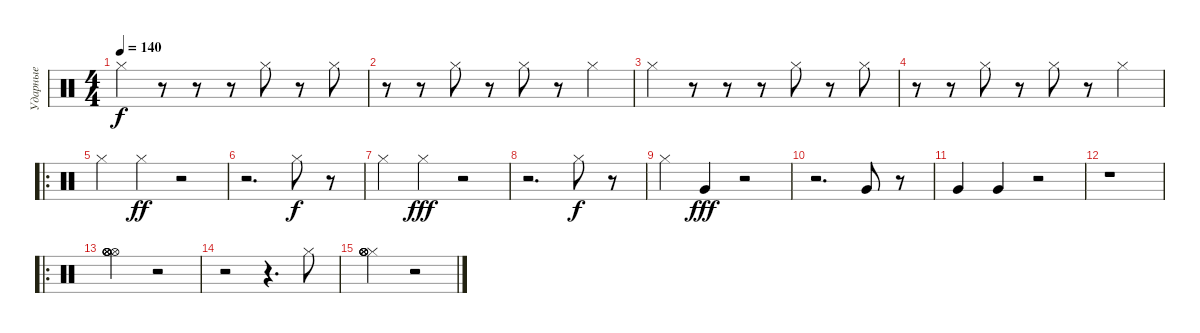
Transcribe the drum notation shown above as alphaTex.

\track ("Ударные" "Ударные") {instrument percussion}
\staff {score}
\articulation defaults
\ts (4 4)
\tempo 140
\clef neutral
\ks c "Hi-Hat (closed)".4{dy f}
r.8 r.8 r.8 "Hi-Hat (closed)".8 r.8 "Hi-Hat (closed)".8 |
r.8 r.8 "Hi-Hat (closed)".8 r.8 "Hi-Hat (closed)".8 r.8 "Hi-Hat (closed)".4 |
"Hi-Hat (closed)".4 r.8 r.8 r.8 "Hi-Hat (closed)".8 r.8 "Hi-Hat (closed)".8 |
r.8 r.8 "Hi-Hat (closed)".8 r.8 "Hi-Hat (closed)".8 r.8 "Hi-Hat (closed)".4 |
\ro "Hi-Hat (closed)".4 "Hi-Hat (closed)".4{dy ff}
r.2 |
r.2{d} "Hi-Hat (closed)".8{dy f} r.8 |
"Hi-Hat (closed)".4 "Hi-Hat (closed)".4{dy fff} r.2 |
r.2{d} "Hi-Hat (closed)".8{dy f} r.8 |
"Hi-Hat (closed)".4 "Very Low Tom (hit)".4{dy fff} r.2 |
r.2{d} "Very Low Tom (hit)".8 r.8 |
"Very Low Tom (hit)".4 "Very Low Tom (hit)".4 r.2 |
r.1 |
\ro
("Hi-Hat (open)" "Hi-Hat (open)" "Hi-Hat (open)" "Hi-Hat (open)" "Hi-Hat (open)").2 r.2 |
r.2 r.4{d} "Hi-Hat (closed)".8 |
("Hi-Hat (closed)" "Hi-Hat (open)" "Hi-Hat (open)" "Hi-Hat (open)" "Hi-Hat (open)").2 r.2
